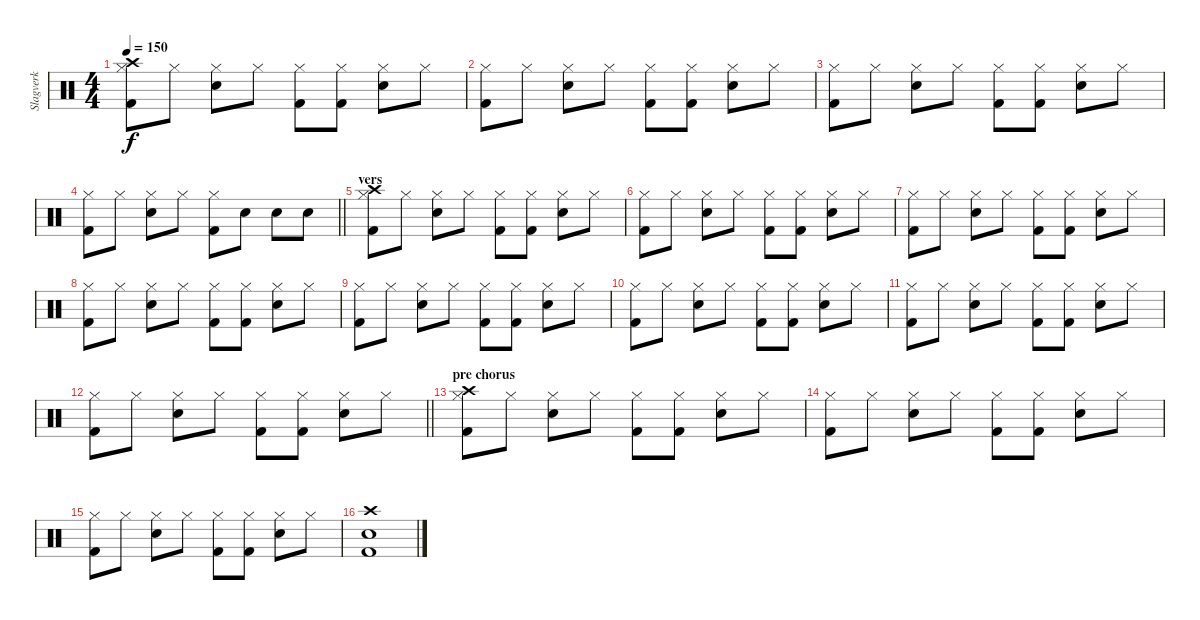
\track ("Slagverk" "Slagverk") {instrument percussion}
\staff {score}
\articulation defaults
\ts (4 4)
\tempo 150
\clef neutral
\ks c
("Hi-Hat (closed)" "Kick (hit) 2" "Crash high (hit)").8{dy f} "Hi-Hat (closed)".8 ("Hi-Hat (closed)" "Snare (hit) 2").8 "Hi-Hat (closed)".8 ("Hi-Hat (closed)" "Kick (hit) 2").8 ("Hi-Hat (closed)" "Kick (hit) 2").8 ("Hi-Hat (closed)" "Snare (hit) 2").8 "Hi-Hat (closed)".8 |
("Hi-Hat (closed)" "Kick (hit) 2").8 "Hi-Hat (closed)".8 ("Hi-Hat (closed)" "Snare (hit) 2").8 "Hi-Hat (closed)".8 ("Hi-Hat (closed)" "Kick (hit) 2").8 ("Hi-Hat (closed)" "Kick (hit) 2").8 ("Hi-Hat (closed)" "Snare (hit) 2").8 "Hi-Hat (closed)".8 |
("Hi-Hat (closed)" "Kick (hit) 2").8 "Hi-Hat (closed)".8 ("Hi-Hat (closed)" "Snare (hit) 2").8 "Hi-Hat (closed)".8 ("Hi-Hat (closed)" "Kick (hit) 2").8 ("Hi-Hat (closed)" "Kick (hit) 2").8 ("Hi-Hat (closed)" "Snare (hit) 2").8 "Hi-Hat (closed)".8 |
\barLineRight lightlight
("Hi-Hat (closed)" "Kick (hit) 2").8 "Hi-Hat (closed)".8 ("Hi-Hat (closed)" "Snare (hit) 2").8 "Hi-Hat (closed)".8 ("Hi-Hat (closed)" "Kick (hit) 2").8 "Snare (hit) 2".8 "Snare (hit) 2".8 "Snare (hit) 2".8 |
\section ("" "vers")
("Hi-Hat (closed)" "Kick (hit) 2" "Crash high (hit)").8 "Hi-Hat (closed)".8 ("Hi-Hat (closed)" "Snare (hit) 2").8 "Hi-Hat (closed)".8 ("Hi-Hat (closed)" "Kick (hit) 2").8 ("Hi-Hat (closed)" "Kick (hit) 2").8 ("Hi-Hat (closed)" "Snare (hit) 2").8 "Hi-Hat (closed)".8 |
("Hi-Hat (closed)" "Kick (hit) 2").8 "Hi-Hat (closed)".8 ("Hi-Hat (closed)" "Snare (hit) 2").8 "Hi-Hat (closed)".8 ("Hi-Hat (closed)" "Kick (hit) 2").8 ("Hi-Hat (closed)" "Kick (hit) 2").8 ("Hi-Hat (closed)" "Snare (hit) 2").8 "Hi-Hat (closed)".8 |
("Hi-Hat (closed)" "Kick (hit) 2").8 "Hi-Hat (closed)".8 ("Hi-Hat (closed)" "Snare (hit) 2").8 "Hi-Hat (closed)".8 ("Hi-Hat (closed)" "Kick (hit) 2").8 ("Hi-Hat (closed)" "Kick (hit) 2").8 ("Hi-Hat (closed)" "Snare (hit) 2").8 "Hi-Hat (closed)".8 |
("Hi-Hat (closed)" "Kick (hit) 2").8 "Hi-Hat (closed)".8 ("Hi-Hat (closed)" "Snare (hit) 2").8 "Hi-Hat (closed)".8 ("Hi-Hat (closed)" "Kick (hit) 2").8 ("Hi-Hat (closed)" "Kick (hit) 2").8 ("Hi-Hat (closed)" "Snare (hit) 2").8 "Hi-Hat (closed)".8 |
("Hi-Hat (closed)" "Kick (hit) 2").8 "Hi-Hat (closed)".8 ("Hi-Hat (closed)" "Snare (hit) 2").8 "Hi-Hat (closed)".8 ("Hi-Hat (closed)" "Kick (hit) 2").8 ("Hi-Hat (closed)" "Kick (hit) 2").8 ("Hi-Hat (closed)" "Snare (hit) 2").8 "Hi-Hat (closed)".8 |
("Hi-Hat (closed)" "Kick (hit) 2").8 "Hi-Hat (closed)".8 ("Hi-Hat (closed)" "Snare (hit) 2").8 "Hi-Hat (closed)".8 ("Hi-Hat (closed)" "Kick (hit) 2").8 ("Hi-Hat (closed)" "Kick (hit) 2").8 ("Hi-Hat (closed)" "Snare (hit) 2").8 "Hi-Hat (closed)".8 |
("Hi-Hat (closed)" "Kick (hit) 2").8 "Hi-Hat (closed)".8 ("Hi-Hat (closed)" "Snare (hit) 2").8 "Hi-Hat (closed)".8 ("Hi-Hat (closed)" "Kick (hit) 2").8 ("Hi-Hat (closed)" "Kick (hit) 2").8 ("Hi-Hat (closed)" "Snare (hit) 2").8 "Hi-Hat (closed)".8 |
\barLineRight lightlight
("Hi-Hat (closed)" "Kick (hit) 2").8 "Hi-Hat (closed)".8 ("Hi-Hat (closed)" "Snare (hit) 2").8 "Hi-Hat (closed)".8 ("Hi-Hat (closed)" "Kick (hit) 2").8 ("Hi-Hat (closed)" "Kick (hit) 2").8 ("Hi-Hat (closed)" "Snare (hit) 2").8 "Hi-Hat (closed)".8 |
\section ("" "pre chorus")
("Hi-Hat (closed)" "Kick (hit) 2" "Crash high (hit)").8 "Hi-Hat (closed)".8 ("Hi-Hat (closed)" "Snare (hit) 2").8 "Hi-Hat (closed)".8 ("Hi-Hat (closed)" "Kick (hit) 2").8 ("Hi-Hat (closed)" "Kick (hit) 2").8 ("Hi-Hat (closed)" "Snare (hit) 2").8 "Hi-Hat (closed)".8 |
("Hi-Hat (closed)" "Kick (hit) 2").8 "Hi-Hat (closed)".8 ("Hi-Hat (closed)" "Snare (hit) 2").8 "Hi-Hat (closed)".8 ("Hi-Hat (closed)" "Kick (hit) 2").8 ("Hi-Hat (closed)" "Kick (hit) 2").8 ("Hi-Hat (closed)" "Snare (hit) 2").8 "Hi-Hat (closed)".8 |
("Hi-Hat (closed)" "Kick (hit) 2").8 "Hi-Hat (closed)".8 ("Hi-Hat (closed)" "Snare (hit) 2").8 "Hi-Hat (closed)".8 ("Hi-Hat (closed)" "Kick (hit) 2").8 ("Hi-Hat (closed)" "Kick (hit) 2").8 ("Hi-Hat (closed)" "Snare (hit) 2").8 "Hi-Hat (closed)".8 |
("Crash high (hit)" "Snare (hit) 2" "Kick (hit) 2").1
